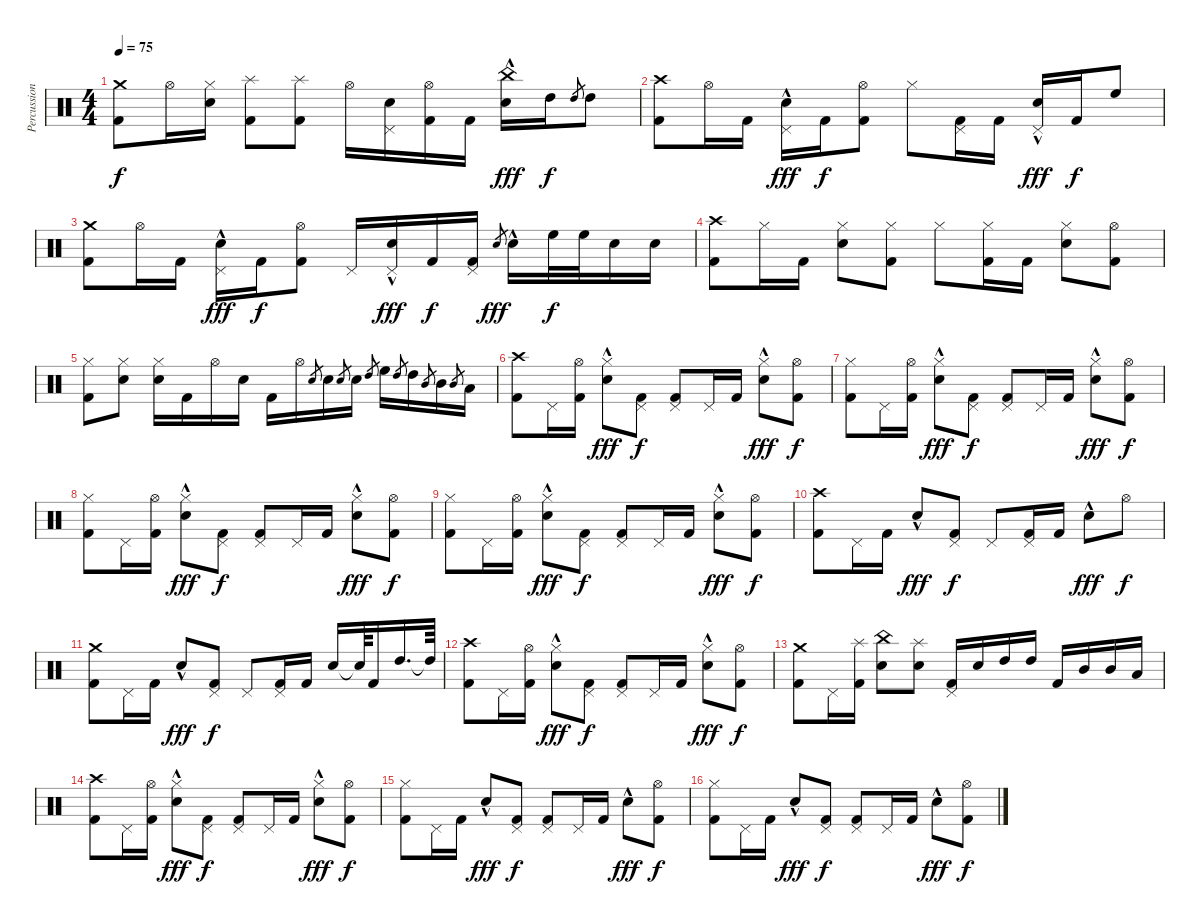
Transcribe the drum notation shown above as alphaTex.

\track ("Percussion" "Percussion") {instrument percussion}
\staff {score}
\articulation defaults
\ts (4 4)
\tempo 75
\clef neutral
\ks c
("Crash medium (hit)" "Kick (hit) 2").8{dy f} "Hi-Hat (open)".16 ("Hi-Hat (closed)" "Electric Snare (hit)").16 ("Splash (hit)" "Kick (hit) 2").8 ("Splash (hit)" "Kick (hit) 2").8 "Hi-Hat (open)".16 ("Pedal Hi-Hat (hit)" "Electric Snare (hit)").16 ("Hi-Hat (open)" "Kick (hit) 2").16 "Kick (hit) 2".16 ("China (hit)" "Electric Snare (hit)"{hac}).16{dy fff} "High Tom (hit)".16{dy f} "High Tom (hit)".8{gr} "High Tom (hit)".8 |
("Crash high (hit)" "Kick (hit) 2").8 "Hi-Hat (open)".16 "Kick (hit) 2".16 ("Pedal Hi-Hat (hit)" "Electric Snare (hit)"{hac}).16{dy fff} "Kick (hit) 2".16{dy f} ("Hi-Hat (open)" "Kick (hit) 2").8 "Hi-Hat (closed)".8 ("Pedal Hi-Hat (hit)" "Kick (hit) 2").16 "Kick (hit) 2".16 ("Pedal Hi-Hat (hit)" "Electric Snare (hit)"{hac}).16{dy fff} "Kick (hit) 2".16{dy f} "High Floor Tom (hit)".8 |
("Crash medium (hit)" "Kick (hit) 2").8 "Hi-Hat (open)".16 "Kick (hit) 2".16 ("Pedal Hi-Hat (hit)" "Electric Snare (hit)"{hac}).16{dy fff} "Kick (hit) 2".16{dy f} ("Hi-Hat (open)" "Kick (hit) 2").8 "Pedal Hi-Hat (hit)".16 ("Pedal Hi-Hat (hit)" "Electric Snare (hit)"{hac}).16{dy fff} "Kick (hit) 2".16{dy f} ("Pedal Hi-Hat (hit)" "Kick (hit) 2").16 "Electric Snare (hit)".8{gr dy fff} "Electric Snare (hit)"{hac}.16 "High Floor Tom (hit)".32{dy f} "High Floor Tom (hit)".32 "Electric Snare (hit)".16 "Electric Snare (hit)".16 |
("Crash high (hit)" "Kick (hit) 2").8 "Hi-Hat (closed)".16 "Kick (hit) 2".16 ("Hi-Hat (closed)" "Electric Snare (hit)").8 ("Hi-Hat (closed)" "Kick (hit) 2").8 "Hi-Hat (closed)".8 ("Hi-Hat (closed)" "Kick (hit) 2").16 "Kick (hit) 2".16 ("Hi-Hat (closed)" "Electric Snare (hit)").8 ("Hi-Hat (open)" "Kick (hit) 2").8 |
("Hi-Hat (closed)" "Kick (hit) 2").8 ("Hi-Hat (closed)" "Electric Snare (hit)").8 ("Hi-Hat (closed)" "Electric Snare (hit)").16 "Kick (hit) 2".16 "Hi-Hat (open)".16 "Electric Snare (hit)".16 "Kick (hit) 2".16 "Hi-Hat (open)".16 "Electric Snare (hit)".8{gr} "Electric Snare (hit)".16 "Electric Snare (hit)".8{gr} "Electric Snare (hit)".16 "High Tom (hit)".8{gr} "High Floor Tom (hit)".16 "High Tom (hit)".8{gr} "High Tom (hit)".16 "Mid Tom (hit)".8{gr} "Mid Tom (hit)".16 "Mid Tom (hit)".8{gr} "Low Tom (hit)".16 |
("Crash high (hit)" "Kick (hit) 2").8 "Pedal Hi-Hat (hit)".16 ("Hi-Hat (open)" "Kick (hit) 2").16 ("Hi-Hat (closed)" "Electric Snare (hit)"{hac}).8{dy fff} ("Pedal Hi-Hat (hit)" "Kick (hit) 2").8{dy f} ("Pedal Hi-Hat (hit)" "Kick (hit) 2").8 "Pedal Hi-Hat (hit)".16 "Kick (hit) 2".16 ("Hi-Hat (closed)" "Electric Snare (hit)"{hac}).8{dy fff} ("Hi-Hat (open)" "Kick (hit) 2").8{dy f} |
("Hi-Hat (closed)" "Kick (hit) 2").8 "Pedal Hi-Hat (hit)".16 ("Hi-Hat (open)" "Kick (hit) 2").16 ("Hi-Hat (closed)" "Electric Snare (hit)"{hac}).8{dy fff} ("Pedal Hi-Hat (hit)" "Kick (hit) 2").8{dy f} ("Pedal Hi-Hat (hit)" "Kick (hit) 2").8 "Pedal Hi-Hat (hit)".16 "Kick (hit) 2".16 ("Hi-Hat (closed)" "Electric Snare (hit)"{hac}).8{dy fff} ("Hi-Hat (open)" "Kick (hit) 2").8{dy f} |
("Hi-Hat (closed)" "Kick (hit) 2").8 "Pedal Hi-Hat (hit)".16 ("Hi-Hat (open)" "Kick (hit) 2").16 ("Hi-Hat (closed)" "Electric Snare (hit)"{hac}).8{dy fff} ("Pedal Hi-Hat (hit)" "Kick (hit) 2").8{dy f} ("Pedal Hi-Hat (hit)" "Kick (hit) 2").8 "Pedal Hi-Hat (hit)".16 "Kick (hit) 2".16 ("Hi-Hat (closed)" "Electric Snare (hit)"{hac}).8{dy fff} ("Hi-Hat (open)" "Kick (hit) 2").8{dy f} |
("Hi-Hat (closed)" "Kick (hit) 2").8 "Pedal Hi-Hat (hit)".16 ("Hi-Hat (open)" "Kick (hit) 2").16 ("Hi-Hat (closed)" "Electric Snare (hit)"{hac}).8{dy fff} ("Pedal Hi-Hat (hit)" "Kick (hit) 2").8{dy f} ("Pedal Hi-Hat (hit)" "Kick (hit) 2").8 "Pedal Hi-Hat (hit)".16 "Kick (hit) 2".16 ("Hi-Hat (closed)" "Electric Snare (hit)"{hac}).8{dy fff} ("Hi-Hat (open)" "Kick (hit) 2").8{dy f} |
("Crash high (hit)" "Kick (hit) 2").8 "Pedal Hi-Hat (hit)".16 "Kick (hit) 2".16 "Electric Snare (hit)"{hac}.8{dy fff} ("Pedal Hi-Hat (hit)" "Kick (hit) 2").8{dy f} "Pedal Hi-Hat (hit)".8 ("Pedal Hi-Hat (hit)" "Kick (hit) 2").16 "Kick (hit) 2".16 "Electric Snare (hit)"{hac}.8{dy fff} "Hi-Hat (open)".8{dy f} |
("Crash medium (hit)" "Kick (hit) 2").8 "Pedal Hi-Hat (hit)".16 "Kick (hit) 2".16 "Electric Snare (hit)"{hac}.8{dy fff} ("Pedal Hi-Hat (hit)" "Kick (hit) 2").8{dy f} "Pedal Hi-Hat (hit)".8 ("Pedal Hi-Hat (hit)" "Kick (hit) 2").16 "Kick (hit) 2".16 "Electric Snare (hit)".16 "Electric Snare (hit)"{t}.64 "Kick (hit) 2".16 "High Tom (hit)".16{d} "High Tom (hit)"{t}.64 |
("Crash high (hit)" "Kick (hit) 2").8 "Pedal Hi-Hat (hit)".16 ("Hi-Hat (open)" "Kick (hit) 2").16 ("Hi-Hat (closed)" "Electric Snare (hit)"{hac}).8{dy fff} ("Pedal Hi-Hat (hit)" "Kick (hit) 2").8{dy f} ("Pedal Hi-Hat (hit)" "Kick (hit) 2").8 "Pedal Hi-Hat (hit)".16 "Kick (hit) 2".16 ("Hi-Hat (closed)" "Electric Snare (hit)"{hac}).8{dy fff} ("Hi-Hat (open)" "Kick (hit) 2").8{dy f} |
("Crash medium (hit)" "Kick (hit) 2").8 "Pedal Hi-Hat (hit)".16 ("Splash (hit)" "Kick (hit) 2").16 ("China (hit)" "Electric Snare (hit)").8 ("Splash (hit)" "Electric Snare (hit)").8 ("Pedal Hi-Hat (hit)" "Kick (hit) 2").16 "Electric Snare (hit)".16 "High Tom (hit)".16 "High Tom (hit)".16 "Kick (hit) 2".16 "Mid Tom (hit)".16 "Mid Tom (hit)".16 "Low Tom (hit)".16 |
("Crash high (hit)" "Kick (hit) 2").8 "Pedal Hi-Hat (hit)".16 ("Hi-Hat (open)" "Kick (hit) 2").16 ("Hi-Hat (closed)" "Electric Snare (hit)"{hac}).8{dy fff} ("Pedal Hi-Hat (hit)" "Kick (hit) 2").8{dy f} ("Pedal Hi-Hat (hit)" "Kick (hit) 2").8 "Pedal Hi-Hat (hit)".16 "Kick (hit) 2".16 ("Hi-Hat (closed)" "Electric Snare (hit)"{hac}).8{dy fff} ("Hi-Hat (open)" "Kick (hit) 2").8{dy f} |
("Hi-Hat (closed)" "Kick (hit) 2").8 "Pedal Hi-Hat (hit)".16 "Kick (hit) 2".16 "Electric Snare (hit)"{hac}.8{dy fff} ("Pedal Hi-Hat (hit)" "Kick (hit) 2").8{dy f} ("Pedal Hi-Hat (hit)" "Kick (hit) 2").8 "Pedal Hi-Hat (hit)".16 "Kick (hit) 2".16 "Electric Snare (hit)"{hac}.8{dy fff} ("Hi-Hat (open)" "Kick (hit) 2").8{dy f} |
("Hi-Hat (closed)" "Kick (hit) 2").8 "Pedal Hi-Hat (hit)".16 "Kick (hit) 2".16 "Electric Snare (hit)"{hac}.8{dy fff} ("Pedal Hi-Hat (hit)" "Kick (hit) 2").8{dy f} ("Pedal Hi-Hat (hit)" "Kick (hit) 2").8 "Pedal Hi-Hat (hit)".16 "Kick (hit) 2".16 "Electric Snare (hit)"{hac}.8{dy fff} ("Hi-Hat (open)" "Kick (hit) 2").8{dy f}
